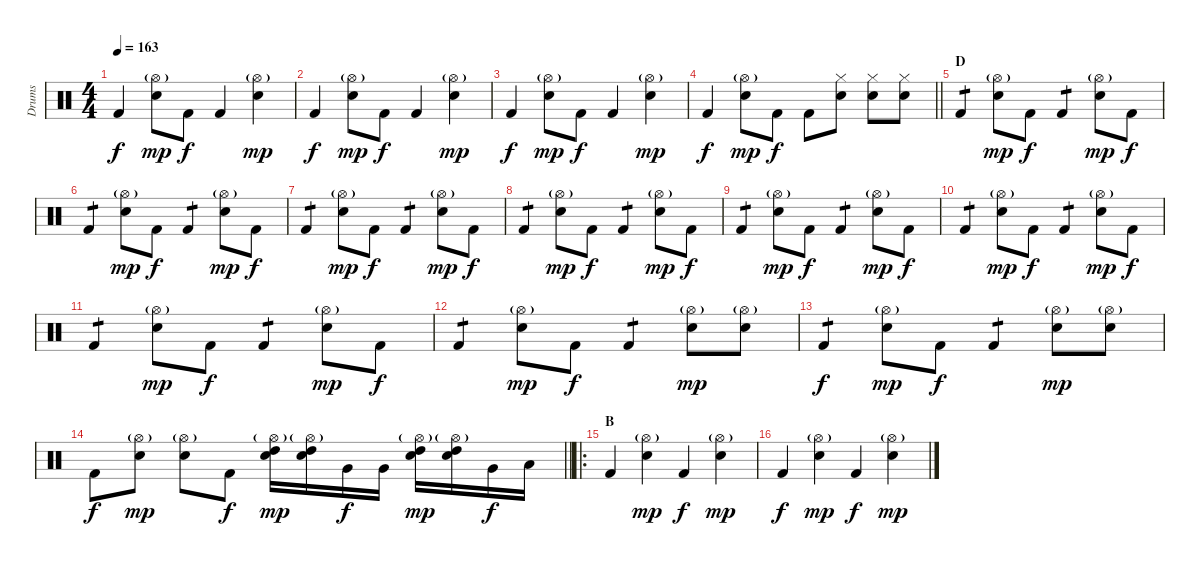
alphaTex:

\track ("Drums" "Drums") {instrument percussion}
\staff {score}
\articulation defaults
\ts (4 4)
\tempo 163
\clef neutral
\ks c "Kick (hit) 2".4{dy f}
("Hi-Hat (open)"{g} "Snare (hit) 2").8{dy mp} "Kick (hit) 2".8{dy f} "Kick (hit) 2".4 ("Hi-Hat (open)"{g} "Snare (hit) 2").4{dy mp} |
"Kick (hit) 2".4{dy f} ("Hi-Hat (open)"{g} "Snare (hit) 2").8{dy mp} "Kick (hit) 2".8{dy f} "Kick (hit) 2".4 ("Hi-Hat (open)"{g} "Snare (hit) 2").4{dy mp} |
"Kick (hit) 2".4{dy f} ("Hi-Hat (open)"{g} "Snare (hit) 2").8{dy mp} "Kick (hit) 2".8{dy f} "Kick (hit) 2".4 ("Hi-Hat (open)"{g} "Snare (hit) 2").4{dy mp} |
\barLineRight lightlight "Kick (hit) 2".4{dy f}
("Hi-Hat (open)"{g} "Snare (hit) 2").8{dy mp} "Kick (hit) 2".8{dy f} "Kick (hit) 2".8 ("Hi-Hat (closed)" "Snare (hit) 2").8 ("Hi-Hat (closed)" "Snare (hit) 2").8 ("Hi-Hat (closed)" "Snare (hit) 2").8 |
\section ("" "D")
"Kick (hit) 2".4{tp 1} ("Hi-Hat (open)"{g} "Snare (hit) 2").8{dy mp} "Kick (hit) 2".8{dy f} "Kick (hit) 2".4{tp 1} ("Hi-Hat (open)"{g} "Snare (hit) 2").8{dy mp} "Kick (hit) 2".8{dy f} |
"Kick (hit) 2".4{tp 1} ("Hi-Hat (open)"{g} "Snare (hit) 2").8{dy mp} "Kick (hit) 2".8{dy f} "Kick (hit) 2".4{tp 1} ("Hi-Hat (open)"{g} "Snare (hit) 2").8{dy mp} "Kick (hit) 2".8{dy f} |
"Kick (hit) 2".4{tp 1} ("Hi-Hat (open)"{g} "Snare (hit) 2").8{dy mp} "Kick (hit) 2".8{dy f} "Kick (hit) 2".4{tp 1} ("Hi-Hat (open)"{g} "Snare (hit) 2").8{dy mp} "Kick (hit) 2".8{dy f} |
"Kick (hit) 2".4{tp 1} ("Hi-Hat (open)"{g} "Snare (hit) 2").8{dy mp} "Kick (hit) 2".8{dy f} "Kick (hit) 2".4{tp 1} ("Hi-Hat (open)"{g} "Snare (hit) 2").8{dy mp} "Kick (hit) 2".8{dy f} |
"Kick (hit) 2".4{tp 1} ("Hi-Hat (open)"{g} "Snare (hit) 2").8{dy mp} "Kick (hit) 2".8{dy f} "Kick (hit) 2".4{tp 1} ("Hi-Hat (open)"{g} "Snare (hit) 2").8{dy mp} "Kick (hit) 2".8{dy f} |
"Kick (hit) 2".4{tp 1} ("Hi-Hat (open)"{g} "Snare (hit) 2").8{dy mp} "Kick (hit) 2".8{dy f} "Kick (hit) 2".4{tp 1} ("Hi-Hat (open)"{g} "Snare (hit) 2").8{dy mp} "Kick (hit) 2".8{dy f} |
"Kick (hit) 2".4{tp 1} ("Hi-Hat (open)"{g} "Snare (hit) 2").8{dy mp} "Kick (hit) 2".8{dy f} "Kick (hit) 2".4{tp 1} ("Hi-Hat (open)"{g} "Snare (hit) 2").8{dy mp} "Kick (hit) 2".8{dy f} |
"Kick (hit) 2".4{tp 1} ("Hi-Hat (open)"{g} "Snare (hit) 2").8{dy mp} "Kick (hit) 2".8{dy f} "Kick (hit) 2".4{tp 1} ("Hi-Hat (open)"{g} "Snare (hit) 2").8{dy mp} ("Hi-Hat (open)"{g} "Snare (hit) 2").8 |
"Kick (hit) 2".4{tp 1 dy f} ("Hi-Hat (open)"{g} "Snare (hit) 2").8{dy mp} "Kick (hit) 2".8{dy f} "Kick (hit) 2".4{tp 1} ("Hi-Hat (open)"{g} "Snare (hit) 2").8{dy mp} ("Hi-Hat (open)"{g} "Snare (hit) 2").8 |
\barLineRight lightlight "Kick (hit) 2".8{dy f}
("Hi-Hat (open)"{g} "Snare (hit) 2").8{dy mp} ("Hi-Hat (open)"{g} "Snare (hit) 2").8 "Kick (hit) 2".8{dy f} ("Hi-Hat (open)"{g} "High Tom (hit)" "Snare (hit) 2").16{dy mp} ("Hi-Hat (open)"{g} "High Tom (hit)" "Snare (hit) 2").16 "Very Low Tom (hit)".16{dy f} "Very Low Tom (hit)".16 ("Hi-Hat (open)"{g} "High Tom (hit)" "Snare (hit) 2").16{dy mp} ("Hi-Hat (open)"{g} "High Tom (hit)" "Snare (hit) 2").16 "Very Low Tom (hit)".16{dy f} "Low Floor Tom (hit)".16 |
\ro
\section ("" "B")
"Kick (hit) 2".4 ("Hi-Hat (open)"{g} "Snare (hit) 2").4{dy mp} "Kick (hit) 2".4{dy f} ("Hi-Hat (open)"{g} "Snare (hit) 2").4{dy mp} |
"Kick (hit) 2".4{dy f} ("Hi-Hat (open)"{g} "Snare (hit) 2").4{dy mp} "Kick (hit) 2".4{dy f} ("Hi-Hat (open)"{g} "Snare (hit) 2").4{dy mp}
